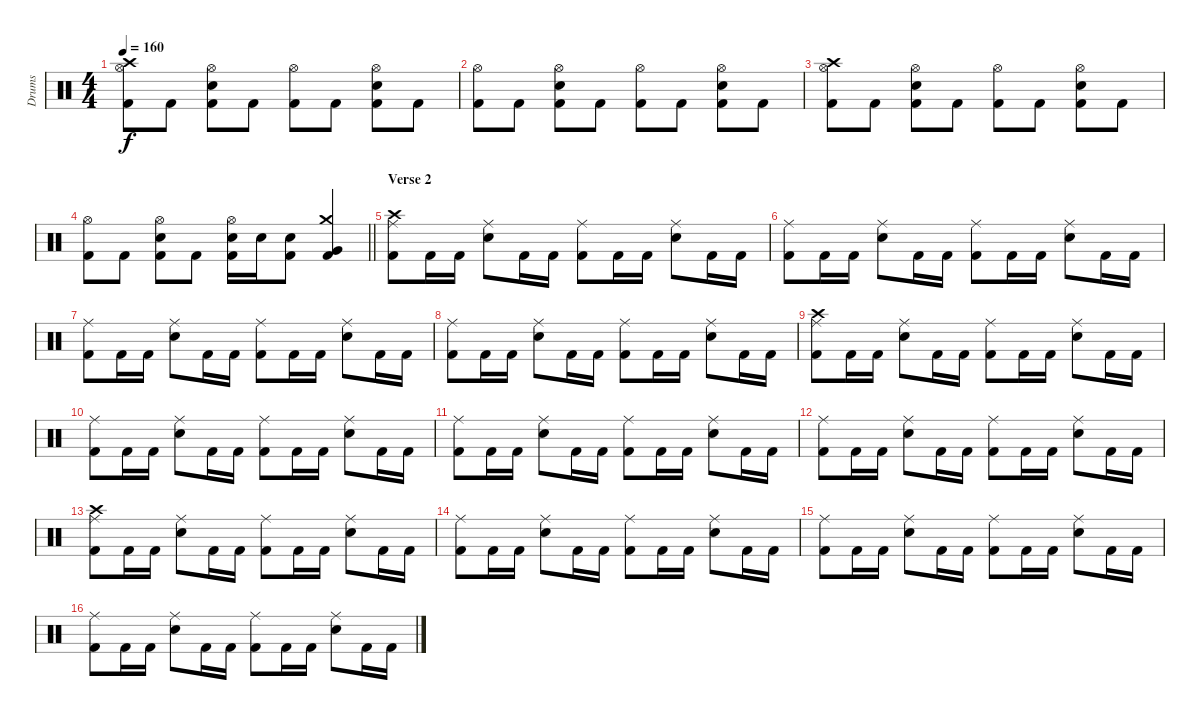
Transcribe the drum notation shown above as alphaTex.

\track ("Drums" "Drums") {instrument percussion}
\staff {score}
\articulation defaults
\ts (4 4)
\tempo 160
\clef neutral
\ks c
("Crash high (hit)" "Hi-Hat (open)" "Kick (hit) 2").8{dy f} "Kick (hit) 2".8 ("Hi-Hat (open)" "Snare (hit) 2" "Kick (hit) 2").8 "Kick (hit) 2".8 ("Hi-Hat (open)" "Kick (hit) 2").8 "Kick (hit) 2".8 ("Hi-Hat (open)" "Snare (hit) 2" "Kick (hit) 2").8 "Kick (hit) 2".8 |
("Hi-Hat (open)" "Kick (hit) 2").8 "Kick (hit) 2".8 ("Hi-Hat (open)" "Snare (hit) 2" "Kick (hit) 2").8 "Kick (hit) 2".8 ("Hi-Hat (open)" "Kick (hit) 2").8 "Kick (hit) 2".8 ("Hi-Hat (open)" "Snare (hit) 2" "Kick (hit) 2").8 "Kick (hit) 2".8 |
("Crash high (hit)" "Hi-Hat (open)" "Kick (hit) 2").8 "Kick (hit) 2".8 ("Hi-Hat (open)" "Snare (hit) 2" "Kick (hit) 2").8 "Kick (hit) 2".8 ("Hi-Hat (open)" "Kick (hit) 2").8 "Kick (hit) 2".8 ("Hi-Hat (open)" "Snare (hit) 2" "Kick (hit) 2").8 "Kick (hit) 2".8 |
\barLineRight lightlight
("Hi-Hat (open)" "Kick (hit) 2").8 "Kick (hit) 2".8 ("Hi-Hat (open)" "Snare (hit) 2" "Kick (hit) 2").8 "Kick (hit) 2".8 ("Hi-Hat (open)" "Snare (hit) 2" "Kick (hit) 2").16 "Snare (hit) 2".16 ("Snare (hit) 2" "Kick (hit) 2").8 ("Crash medium (hit)" "Very Low Tom (hit)" "Kick (hit) 2").4 |
\section ("" "Verse 2")
("Crash high (hit)" "Ride (middle)" "Kick (hit) 2").8 "Kick (hit) 2".16 "Kick (hit) 2".16 ("Ride (middle)" "Snare (hit) 2").8 "Kick (hit) 2".16 "Kick (hit) 2".16 ("Ride (middle)" "Kick (hit) 2").8 "Kick (hit) 2".16 "Kick (hit) 2".16 ("Ride (middle)" "Snare (hit) 2").8 "Kick (hit) 2".16 "Kick (hit) 2".16 |
("Ride (middle)" "Kick (hit) 2").8 "Kick (hit) 2".16 "Kick (hit) 2".16 ("Ride (middle)" "Snare (hit) 2").8 "Kick (hit) 2".16 "Kick (hit) 2".16 ("Ride (middle)" "Kick (hit) 2").8 "Kick (hit) 2".16 "Kick (hit) 2".16 ("Ride (middle)" "Snare (hit) 2").8 "Kick (hit) 2".16 "Kick (hit) 2".16 |
("Ride (middle)" "Kick (hit) 2").8 "Kick (hit) 2".16 "Kick (hit) 2".16 ("Ride (middle)" "Snare (hit) 2").8 "Kick (hit) 2".16 "Kick (hit) 2".16 ("Ride (middle)" "Kick (hit) 2").8 "Kick (hit) 2".16 "Kick (hit) 2".16 ("Ride (middle)" "Snare (hit) 2").8 "Kick (hit) 2".16 "Kick (hit) 2".16 |
("Ride (middle)" "Kick (hit) 2").8 "Kick (hit) 2".16 "Kick (hit) 2".16 ("Ride (middle)" "Snare (hit) 2").8 "Kick (hit) 2".16 "Kick (hit) 2".16 ("Ride (middle)" "Kick (hit) 2").8 "Kick (hit) 2".16 "Kick (hit) 2".16 ("Ride (middle)" "Snare (hit) 2").8 "Kick (hit) 2".16 "Kick (hit) 2".16 |
("Crash high (hit)" "Ride (middle)" "Kick (hit) 2").8 "Kick (hit) 2".16 "Kick (hit) 2".16 ("Ride (middle)" "Snare (hit) 2").8 "Kick (hit) 2".16 "Kick (hit) 2".16 ("Ride (middle)" "Kick (hit) 2").8 "Kick (hit) 2".16 "Kick (hit) 2".16 ("Ride (middle)" "Snare (hit) 2").8 "Kick (hit) 2".16 "Kick (hit) 2".16 |
("Ride (middle)" "Kick (hit) 2").8 "Kick (hit) 2".16 "Kick (hit) 2".16 ("Ride (middle)" "Snare (hit) 2").8 "Kick (hit) 2".16 "Kick (hit) 2".16 ("Ride (middle)" "Kick (hit) 2").8 "Kick (hit) 2".16 "Kick (hit) 2".16 ("Ride (middle)" "Snare (hit) 2").8 "Kick (hit) 2".16 "Kick (hit) 2".16 |
("Ride (middle)" "Kick (hit) 2").8 "Kick (hit) 2".16 "Kick (hit) 2".16 ("Ride (middle)" "Snare (hit) 2").8 "Kick (hit) 2".16 "Kick (hit) 2".16 ("Ride (middle)" "Kick (hit) 2").8 "Kick (hit) 2".16 "Kick (hit) 2".16 ("Ride (middle)" "Snare (hit) 2").8 "Kick (hit) 2".16 "Kick (hit) 2".16 |
("Ride (middle)" "Kick (hit) 2").8 "Kick (hit) 2".16 "Kick (hit) 2".16 ("Ride (middle)" "Snare (hit) 2").8 "Kick (hit) 2".16 "Kick (hit) 2".16 ("Ride (middle)" "Kick (hit) 2").8 "Kick (hit) 2".16 "Kick (hit) 2".16 ("Ride (middle)" "Snare (hit) 2").8 "Kick (hit) 2".16 "Kick (hit) 2".16 |
("Crash high (hit)" "Ride (middle)" "Kick (hit) 2").8 "Kick (hit) 2".16 "Kick (hit) 2".16 ("Ride (middle)" "Snare (hit) 2").8 "Kick (hit) 2".16 "Kick (hit) 2".16 ("Ride (middle)" "Kick (hit) 2").8 "Kick (hit) 2".16 "Kick (hit) 2".16 ("Ride (middle)" "Snare (hit) 2").8 "Kick (hit) 2".16 "Kick (hit) 2".16 |
("Ride (middle)" "Kick (hit) 2").8 "Kick (hit) 2".16 "Kick (hit) 2".16 ("Ride (middle)" "Snare (hit) 2").8 "Kick (hit) 2".16 "Kick (hit) 2".16 ("Ride (middle)" "Kick (hit) 2").8 "Kick (hit) 2".16 "Kick (hit) 2".16 ("Ride (middle)" "Snare (hit) 2").8 "Kick (hit) 2".16 "Kick (hit) 2".16 |
("Ride (middle)" "Kick (hit) 2").8 "Kick (hit) 2".16 "Kick (hit) 2".16 ("Ride (middle)" "Snare (hit) 2").8 "Kick (hit) 2".16 "Kick (hit) 2".16 ("Ride (middle)" "Kick (hit) 2").8 "Kick (hit) 2".16 "Kick (hit) 2".16 ("Ride (middle)" "Snare (hit) 2").8 "Kick (hit) 2".16 "Kick (hit) 2".16 |
("Ride (middle)" "Kick (hit) 2").8 "Kick (hit) 2".16 "Kick (hit) 2".16 ("Ride (middle)" "Snare (hit) 2").8 "Kick (hit) 2".16 "Kick (hit) 2".16 ("Ride (middle)" "Kick (hit) 2").8 "Kick (hit) 2".16 "Kick (hit) 2".16 ("Ride (middle)" "Snare (hit) 2").8 "Kick (hit) 2".16 "Kick (hit) 2".16
